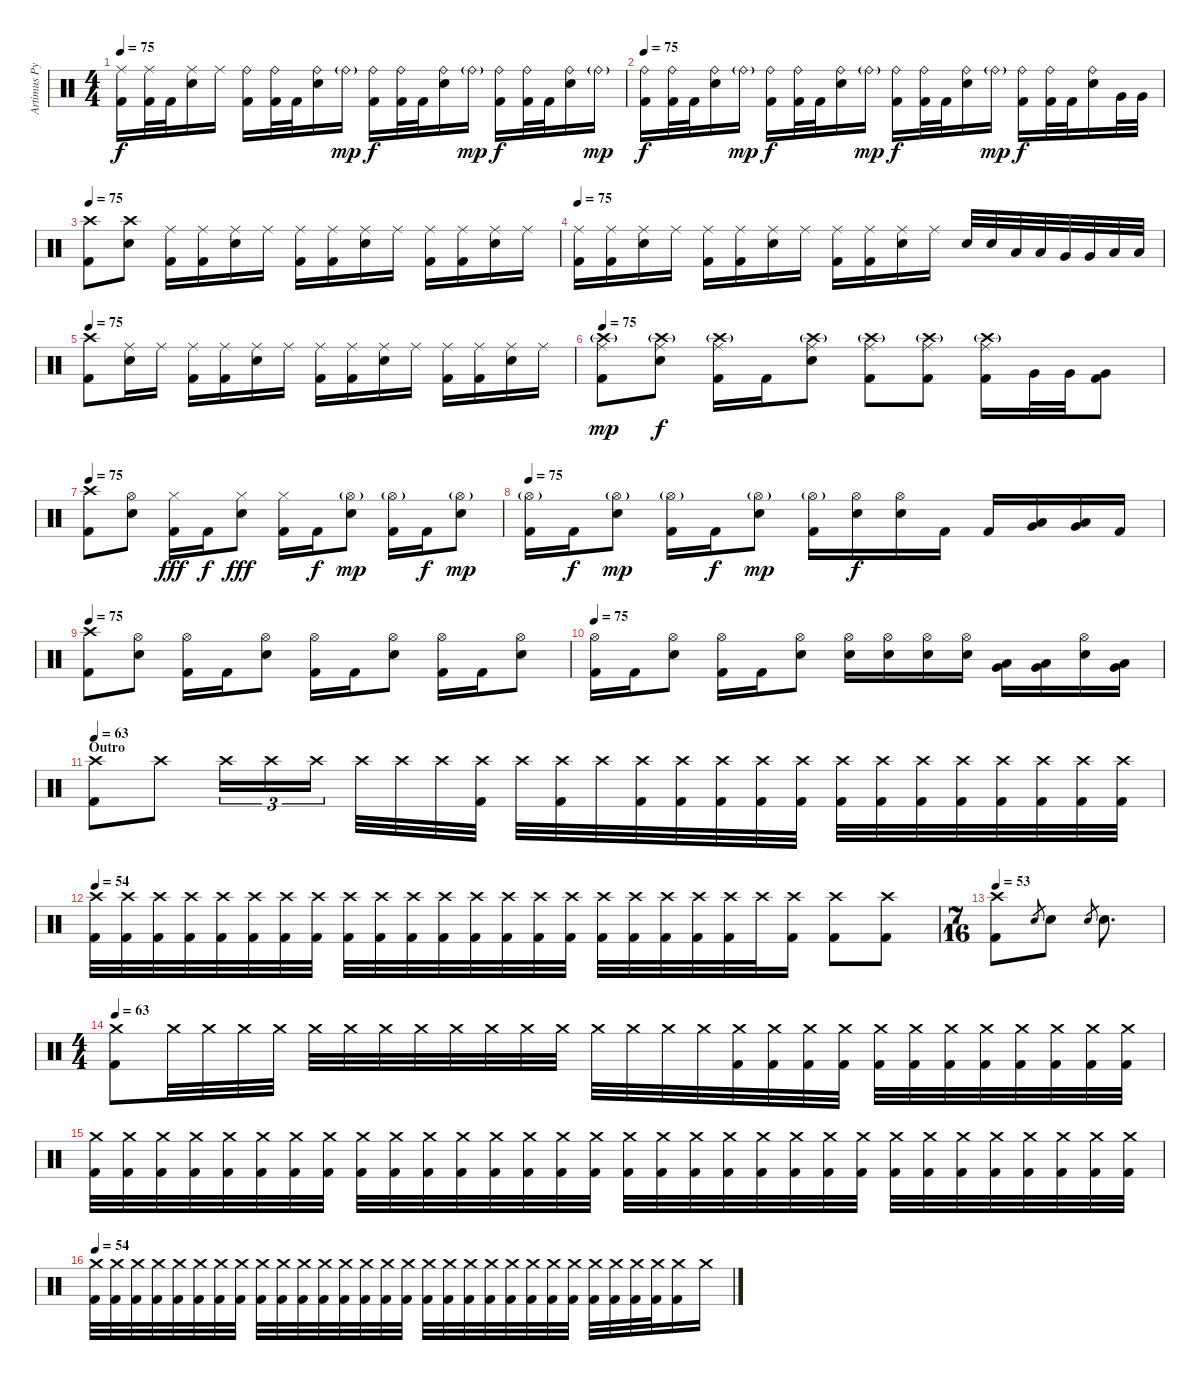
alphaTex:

\track ("Artimus Pyle (drums)" "Artimus Py") {instrument percussion}
\staff {score}
\articulation defaults
\ts (4 4)
\tempo 75
\clef neutral
\ks c
("Ride (middle)" "Kick (hit) 2").16{dy f} ("Ride (middle)" "Kick (hit) 2").32 "Kick (hit) 2".32 ("Ride (middle)" "Electric Snare (hit)").16 "Ride (middle)".16 ("Ride (bell)" "Kick (hit) 2").16 ("Ride (bell)" "Kick (hit) 2").32 "Kick (hit) 2".32 ("Ride (bell)" "Electric Snare (hit)").16 "Ride (bell)"{g}.16{dy mp} ("Ride (bell)" "Kick (hit) 2").16{dy f} ("Ride (bell)" "Kick (hit) 2").32 "Kick (hit) 2".32 ("Ride (bell)" "Electric Snare (hit)").16 "Ride (bell)"{g}.16{dy mp} ("Ride (bell)" "Kick (hit) 2").16{dy f} ("Ride (bell)" "Kick (hit) 2").32 "Kick (hit) 2".32 ("Ride (bell)" "Electric Snare (hit)").16 "Ride (bell)"{g}.16{dy mp} |
\tempo 75
("Ride (bell)" "Kick (hit) 2").16{dy f} ("Ride (bell)" "Kick (hit) 2").32 "Kick (hit) 2".32 ("Ride (bell)" "Electric Snare (hit)").16 "Ride (bell)"{g}.16{dy mp} ("Ride (bell)" "Kick (hit) 2").16{dy f} ("Ride (bell)" "Kick (hit) 2").32 "Kick (hit) 2".32 ("Ride (bell)" "Electric Snare (hit)").16 "Ride (bell)"{g}.16{dy mp} ("Ride (bell)" "Kick (hit) 2").16{dy f} ("Ride (bell)" "Kick (hit) 2").32 "Kick (hit) 2".32 ("Ride (bell)" "Electric Snare (hit)").16 "Ride (bell)"{g}.16{dy mp} ("Ride (bell)" "Kick (hit) 2").16{dy f} ("Ride (bell)" "Kick (hit) 2").32 "Kick (hit) 2".32 ("Ride (bell)" "Electric Snare (hit)").16 "Very Low Tom (hit)".32 "Very Low Tom (hit)".32 |
\tempo 75
("Crash high (hit)" "Kick (hit) 2").8 ("Crash high (hit)" "Electric Snare (hit)").8 ("Ride (middle)" "Kick (hit) 2").16 ("Ride (middle)" "Kick (hit) 2").16 ("Ride (middle)" "Electric Snare (hit)").16 "Ride (middle)".16 ("Ride (middle)" "Kick (hit) 2").16 ("Ride (middle)" "Kick (hit) 2").16 ("Ride (middle)" "Electric Snare (hit)").16 "Ride (middle)".16 ("Ride (middle)" "Kick (hit) 2").16 ("Ride (middle)" "Kick (hit) 2").16 ("Ride (middle)" "Electric Snare (hit)").16 "Ride (middle)".16 |
\tempo 75
("Ride (middle)" "Kick (hit) 2").16 ("Ride (middle)" "Kick (hit) 2").16 ("Ride (middle)" "Electric Snare (hit)").16 "Ride (middle)".16 ("Ride (middle)" "Kick (hit) 2").16 ("Ride (middle)" "Kick (hit) 2").16 ("Ride (middle)" "Electric Snare (hit)").16 "Ride (middle)".16 ("Ride (middle)" "Kick (hit) 2").16 ("Ride (middle)" "Kick (hit) 2").16 ("Ride (middle)" "Electric Snare (hit)").16 "Ride (middle)".16 "Electric Snare (hit)".32 "Electric Snare (hit)".32 "Low Tom (hit)".32 "Low Tom (hit)".32 "Very Low Tom (hit)".32 "Very Low Tom (hit)".32 "Low Floor Tom (hit)".32 "Low Floor Tom (hit)".32 |
\tempo 75
("Crash high (hit)" "Kick (hit) 2").8 ("Ride (middle)" "Electric Snare (hit)").16 "Ride (middle)".16 ("Ride (middle)" "Kick (hit) 2").16 ("Ride (middle)" "Kick (hit) 2").16 ("Ride (middle)" "Electric Snare (hit)").16 "Ride (middle)".16 ("Ride (middle)" "Kick (hit) 2").16 ("Ride (middle)" "Kick (hit) 2").16 ("Ride (middle)" "Electric Snare (hit)").16 "Ride (middle)".16 ("Ride (middle)" "Kick (hit) 2").16 ("Ride (middle)" "Kick (hit) 2").16 ("Ride (middle)" "Electric Snare (hit)").16 "Ride (middle)".16 |
\tempo 75
("Crash high (hit)"{g} "Ride (middle)" "Kick (hit) 2").8{dy mp} ("Crash high (hit)"{g} "Ride (middle)" "Electric Snare (hit)").8{dy f} ("Crash high (hit)"{g} "Ride (middle)" "Kick (hit) 2").16 "Kick (hit) 2".16 ("Crash high (hit)"{g} "Ride (middle)" "Electric Snare (hit)").8 ("Crash high (hit)"{g} "Ride (middle)" "Kick (hit) 2").8 ("Crash high (hit)"{g} "Ride (middle)" "Kick (hit) 2").8 ("Crash high (hit)"{g} "Ride (middle)" "Kick (hit) 2").16 "Very Low Tom (hit)".32 "Very Low Tom (hit)".32 ("Very Low Tom (hit)" "Kick (hit) 2").8 |
\tempo 75
("Crash high (hit)" "Kick (hit) 2").8 ("Hi-Hat (open)" "Electric Snare (hit)").8 ("Hi-Hat (closed)" "Kick (hit) 2").16{dy fff} "Kick (hit) 2".16{dy f} ("Hi-Hat (closed)" "Electric Snare (hit)").8{dy fff} ("Hi-Hat (closed)" "Kick (hit) 2").16 "Kick (hit) 2".16{dy f} ("Hi-Hat (open)"{g} "Electric Snare (hit)").8{dy mp} ("Hi-Hat (open)"{g} "Kick (hit) 2").16 "Kick (hit) 2".16{dy f} ("Hi-Hat (open)"{g} "Electric Snare (hit)").8{dy mp} |
\tempo 75
("Hi-Hat (open)"{g} "Kick (hit) 2").16 "Kick (hit) 2".16{dy f} ("Hi-Hat (open)"{g} "Electric Snare (hit)").8{dy mp} ("Hi-Hat (open)"{g} "Kick (hit) 2").16 "Kick (hit) 2".16{dy f} ("Hi-Hat (open)"{g} "Electric Snare (hit)").8{dy mp} ("Hi-Hat (open)"{g} "Kick (hit) 2").16 ("Hi-Hat (open)" "Electric Snare (hit)").16{dy f} ("Hi-Hat (open)" "Electric Snare (hit)").16 "Kick (hit) 2".16 "Kick (hit) 2".16 ("Low Tom (hit)" "Very Low Tom (hit)").16 ("Low Tom (hit)" "Very Low Tom (hit)").16 "Kick (hit) 2".16 |
\tempo 75
("Crash high (hit)" "Kick (hit) 2").8 ("Hi-Hat (open)" "Electric Snare (hit)").8 ("Hi-Hat (open)" "Kick (hit) 2").16 "Kick (hit) 2".16 ("Hi-Hat (open)" "Electric Snare (hit)").8 ("Hi-Hat (open)" "Kick (hit) 2").16 "Kick (hit) 2".16 ("Hi-Hat (open)" "Electric Snare (hit)").8 ("Hi-Hat (open)" "Kick (hit) 2").16 "Kick (hit) 2".16 ("Hi-Hat (open)" "Electric Snare (hit)").8 |
\tempo 75
("Hi-Hat (open)" "Kick (hit) 2").16 "Kick (hit) 2".16 ("Hi-Hat (open)" "Electric Snare (hit)").8 ("Hi-Hat (open)" "Kick (hit) 2").16 "Kick (hit) 2".16 ("Hi-Hat (open)" "Electric Snare (hit)").8 ("Hi-Hat (open)" "Electric Snare (hit)").16 ("Hi-Hat (open)" "Electric Snare (hit)").16 ("Hi-Hat (open)" "Electric Snare (hit)").16 ("Hi-Hat (open)" "Electric Snare (hit)").16 ("Low Tom (hit)" "Very Low Tom (hit)").16 ("Low Tom (hit)" "Very Low Tom (hit)").16 ("Hi-Hat (open)" "Electric Snare (hit)").16 ("Low Tom (hit)" "Very Low Tom (hit)").16 |
\section ("" "Outro")
\tempo 63
("Crash high (hit)" "Kick (hit) 2").8 "Crash high (hit)".8 "Crash high (hit)".16{tu (3 2)} "Crash high (hit)".16{tu (3 2)} "Crash high (hit)".16{tu (3 2)} "Crash high (hit)".32 "Crash high (hit)".32 "Crash high (hit)".32 ("Crash high (hit)" "Kick (hit) 2").32 "Crash high (hit)".32 ("Crash high (hit)" "Kick (hit) 2").32 "Crash high (hit)".32 ("Crash high (hit)" "Kick (hit) 2").32 ("Crash high (hit)" "Kick (hit) 2").32 ("Crash high (hit)" "Kick (hit) 2").32 ("Crash high (hit)" "Kick (hit) 2").32 ("Crash high (hit)" "Kick (hit) 2").32 ("Crash high (hit)" "Kick (hit) 2").32 ("Crash high (hit)" "Kick (hit) 2").32 ("Crash high (hit)" "Kick (hit) 2").32 ("Crash high (hit)" "Kick (hit) 2").32 ("Crash high (hit)" "Kick (hit) 2").32 ("Crash high (hit)" "Kick (hit) 2").32 ("Crash high (hit)" "Kick (hit) 2").32 ("Crash high (hit)" "Kick (hit) 2").32 |
\tempo 54
("Crash high (hit)" "Kick (hit) 2").32 ("Crash high (hit)" "Kick (hit) 2").32 ("Crash high (hit)" "Kick (hit) 2").32 ("Crash high (hit)" "Kick (hit) 2").32 ("Crash high (hit)" "Kick (hit) 2").32 ("Crash high (hit)" "Kick (hit) 2").32 ("Crash high (hit)" "Kick (hit) 2").32 ("Crash high (hit)" "Kick (hit) 2").32 ("Crash high (hit)" "Kick (hit) 2").32 ("Crash high (hit)" "Kick (hit) 2").32 ("Crash high (hit)" "Kick (hit) 2").32 ("Crash high (hit)" "Kick (hit) 2").32 ("Crash high (hit)" "Kick (hit) 2").32 ("Crash high (hit)" "Kick (hit) 2").32 ("Crash high (hit)" "Kick (hit) 2").32 ("Crash high (hit)" "Kick (hit) 2").32 ("Crash high (hit)" "Kick (hit) 2").32 ("Crash high (hit)" "Kick (hit) 2").32 ("Crash high (hit)" "Kick (hit) 2").32 ("Crash high (hit)" "Kick (hit) 2").32 ("Crash high (hit)" "Kick (hit) 2").32 "Crash high (hit)".32 ("Crash high (hit)" "Kick (hit) 2").16 ("Crash high (hit)" "Kick (hit) 2").8 ("Crash high (hit)" "Kick (hit) 2").8 |
\ts (7 16)
\tempo 53
("Crash high (hit)" "Kick (hit) 2").8 "Electric Snare (hit)".8{gr} "Electric Snare (hit)".8 "Electric Snare (hit)".8{gr} "Electric Snare (hit)".8{d} |
\ts (4 4)
\tempo 63
("Crash medium (hit)" "Kick (hit) 2").8 "Crash medium (hit)".32 "Crash medium (hit)".32 "Crash medium (hit)".32 "Crash medium (hit)".32 "Crash medium (hit)".32 "Crash medium (hit)".32 "Crash medium (hit)".32 "Crash medium (hit)".32 "Crash medium (hit)".32 "Crash medium (hit)".32 "Crash medium (hit)".32 "Crash medium (hit)".32 "Crash medium (hit)".32 "Crash medium (hit)".32 "Crash medium (hit)".32 "Crash medium (hit)".32 ("Crash medium (hit)" "Kick (hit) 2").32 ("Crash medium (hit)" "Kick (hit) 2").32 ("Crash medium (hit)" "Kick (hit) 2").32 ("Crash medium (hit)" "Kick (hit) 2").32 ("Crash medium (hit)" "Kick (hit) 2").32 ("Crash medium (hit)" "Kick (hit) 2").32 ("Crash medium (hit)" "Kick (hit) 2").32 ("Crash medium (hit)" "Kick (hit) 2").32 ("Crash medium (hit)" "Kick (hit) 2").32 ("Crash medium (hit)" "Kick (hit) 2").32 ("Crash medium (hit)" "Kick (hit) 2").32 ("Crash medium (hit)" "Kick (hit) 2").32 |
("Crash medium (hit)" "Kick (hit) 2").32 ("Crash medium (hit)" "Kick (hit) 2").32 ("Crash medium (hit)" "Kick (hit) 2").32 ("Crash medium (hit)" "Kick (hit) 2").32 ("Crash medium (hit)" "Kick (hit) 2").32 ("Crash medium (hit)" "Kick (hit) 2").32 ("Crash medium (hit)" "Kick (hit) 2").32 ("Crash medium (hit)" "Kick (hit) 2").32 ("Crash medium (hit)" "Kick (hit) 2").32 ("Crash medium (hit)" "Kick (hit) 2").32 ("Crash medium (hit)" "Kick (hit) 2").32 ("Crash medium (hit)" "Kick (hit) 2").32 ("Crash medium (hit)" "Kick (hit) 2").32 ("Crash medium (hit)" "Kick (hit) 2").32 ("Crash medium (hit)" "Kick (hit) 2").32 ("Crash medium (hit)" "Kick (hit) 2").32 ("Crash medium (hit)" "Kick (hit) 2").32 ("Crash medium (hit)" "Kick (hit) 2").32 ("Crash medium (hit)" "Kick (hit) 2").32 ("Crash medium (hit)" "Kick (hit) 2").32 ("Crash medium (hit)" "Kick (hit) 2").32 ("Crash medium (hit)" "Kick (hit) 2").32 ("Crash medium (hit)" "Kick (hit) 2").32 ("Crash medium (hit)" "Kick (hit) 2").32 ("Crash medium (hit)" "Kick (hit) 2").32 ("Crash medium (hit)" "Kick (hit) 2").32 ("Crash medium (hit)" "Kick (hit) 2").32 ("Crash medium (hit)" "Kick (hit) 2").32 ("Crash medium (hit)" "Kick (hit) 2").32 ("Crash medium (hit)" "Kick (hit) 2").32 ("Crash medium (hit)" "Kick (hit) 2").32 ("Crash medium (hit)" "Kick (hit) 2").32 |
\tempo 54
("Crash medium (hit)" "Kick (hit) 2").32 ("Crash medium (hit)" "Kick (hit) 2").32 ("Crash medium (hit)" "Kick (hit) 2").32 ("Crash medium (hit)" "Kick (hit) 2").32 ("Crash medium (hit)" "Kick (hit) 2").32 ("Crash medium (hit)" "Kick (hit) 2").32 ("Crash medium (hit)" "Kick (hit) 2").32 ("Crash medium (hit)" "Kick (hit) 2").32 ("Crash medium (hit)" "Kick (hit) 2").32 ("Crash medium (hit)" "Kick (hit) 2").32 ("Crash medium (hit)" "Kick (hit) 2").32 ("Crash medium (hit)" "Kick (hit) 2").32 ("Crash medium (hit)" "Kick (hit) 2").32 ("Crash medium (hit)" "Kick (hit) 2").32 ("Crash medium (hit)" "Kick (hit) 2").32 ("Crash medium (hit)" "Kick (hit) 2").32 ("Crash medium (hit)" "Kick (hit) 2").32 ("Crash medium (hit)" "Kick (hit) 2").32 ("Crash medium (hit)" "Kick (hit) 2").32 ("Crash medium (hit)" "Kick (hit) 2").32 ("Crash medium (hit)" "Kick (hit) 2").32 ("Crash medium (hit)" "Kick (hit) 2").32 ("Crash medium (hit)" "Kick (hit) 2").32 ("Crash medium (hit)" "Kick (hit) 2").32 ("Crash medium (hit)" "Kick (hit) 2").32 ("Crash medium (hit)" "Kick (hit) 2").32 ("Crash medium (hit)" "Kick (hit) 2").32 ("Crash medium (hit)" "Kick (hit) 2").32 ("Crash medium (hit)" "Kick (hit) 2").16 "Crash medium (hit)".16
